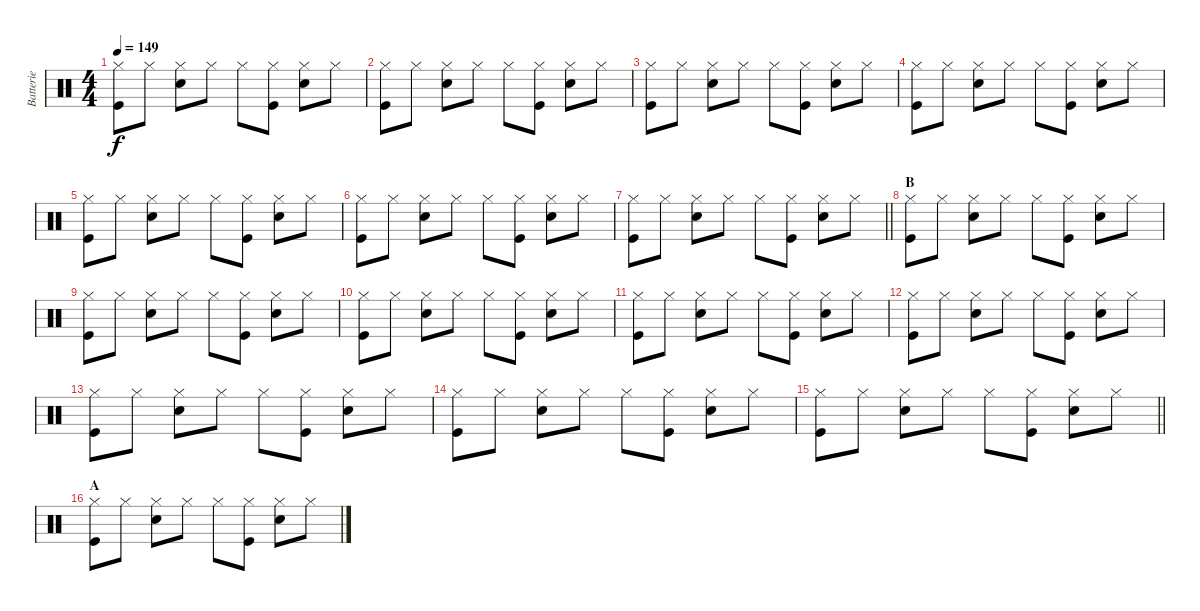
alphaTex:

\track ("Batterie" "Batterie") {instrument percussion}
\staff {score}
\articulation defaults
\ts (4 4)
\tempo 149
\clef neutral
\ks c
("Hi-Hat (closed)" "Kick (hit)").8{dy f} "Hi-Hat (closed)".8 ("Hi-Hat (closed)" "Snare (hit) 2").8 "Hi-Hat (closed)".8 "Hi-Hat (closed)".8 ("Hi-Hat (closed)" "Kick (hit)").8 ("Hi-Hat (closed)" "Snare (hit) 2").8 "Hi-Hat (closed)".8 |
("Hi-Hat (closed)" "Kick (hit)").8 "Hi-Hat (closed)".8 ("Hi-Hat (closed)" "Snare (hit) 2").8 "Hi-Hat (closed)".8 "Hi-Hat (closed)".8 ("Hi-Hat (closed)" "Kick (hit)").8 ("Hi-Hat (closed)" "Snare (hit) 2").8 "Hi-Hat (closed)".8 |
("Hi-Hat (closed)" "Kick (hit)").8 "Hi-Hat (closed)".8 ("Hi-Hat (closed)" "Snare (hit) 2").8 "Hi-Hat (closed)".8 "Hi-Hat (closed)".8 ("Hi-Hat (closed)" "Kick (hit)").8 ("Hi-Hat (closed)" "Snare (hit) 2").8 "Hi-Hat (closed)".8 |
("Hi-Hat (closed)" "Kick (hit)").8 "Hi-Hat (closed)".8 ("Hi-Hat (closed)" "Snare (hit) 2").8 "Hi-Hat (closed)".8 "Hi-Hat (closed)".8 ("Hi-Hat (closed)" "Kick (hit)").8 ("Hi-Hat (closed)" "Snare (hit) 2").8 "Hi-Hat (closed)".8 |
("Hi-Hat (closed)" "Kick (hit)").8 "Hi-Hat (closed)".8 ("Hi-Hat (closed)" "Snare (hit) 2").8 "Hi-Hat (closed)".8 "Hi-Hat (closed)".8 ("Hi-Hat (closed)" "Kick (hit)").8 ("Hi-Hat (closed)" "Snare (hit) 2").8 "Hi-Hat (closed)".8 |
("Hi-Hat (closed)" "Kick (hit)").8 "Hi-Hat (closed)".8 ("Hi-Hat (closed)" "Snare (hit) 2").8 "Hi-Hat (closed)".8 "Hi-Hat (closed)".8 ("Hi-Hat (closed)" "Kick (hit)").8 ("Hi-Hat (closed)" "Snare (hit) 2").8 "Hi-Hat (closed)".8 |
\barLineRight lightlight
("Hi-Hat (closed)" "Kick (hit)").8 "Hi-Hat (closed)".8 ("Hi-Hat (closed)" "Snare (hit) 2").8 "Hi-Hat (closed)".8 "Hi-Hat (closed)".8 ("Hi-Hat (closed)" "Kick (hit)").8 ("Hi-Hat (closed)" "Snare (hit) 2").8 "Hi-Hat (closed)".8 |
\section ("" "B")
("Hi-Hat (closed)" "Kick (hit)").8 "Hi-Hat (closed)".8 ("Hi-Hat (closed)" "Snare (hit) 2").8 "Hi-Hat (closed)".8 "Hi-Hat (closed)".8 ("Hi-Hat (closed)" "Kick (hit)").8 ("Hi-Hat (closed)" "Snare (hit) 2").8 "Hi-Hat (closed)".8 |
("Hi-Hat (closed)" "Kick (hit)").8 "Hi-Hat (closed)".8 ("Hi-Hat (closed)" "Snare (hit) 2").8 "Hi-Hat (closed)".8 "Hi-Hat (closed)".8 ("Hi-Hat (closed)" "Kick (hit)").8 ("Hi-Hat (closed)" "Snare (hit) 2").8 "Hi-Hat (closed)".8 |
("Hi-Hat (closed)" "Kick (hit)").8 "Hi-Hat (closed)".8 ("Hi-Hat (closed)" "Snare (hit) 2").8 "Hi-Hat (closed)".8 "Hi-Hat (closed)".8 ("Hi-Hat (closed)" "Kick (hit)").8 ("Hi-Hat (closed)" "Snare (hit) 2").8 "Hi-Hat (closed)".8 |
("Hi-Hat (closed)" "Kick (hit)").8 "Hi-Hat (closed)".8 ("Hi-Hat (closed)" "Snare (hit) 2").8 "Hi-Hat (closed)".8 "Hi-Hat (closed)".8 ("Hi-Hat (closed)" "Kick (hit)").8 ("Hi-Hat (closed)" "Snare (hit) 2").8 "Hi-Hat (closed)".8 |
("Hi-Hat (closed)" "Kick (hit)").8 "Hi-Hat (closed)".8 ("Hi-Hat (closed)" "Snare (hit) 2").8 "Hi-Hat (closed)".8 "Hi-Hat (closed)".8 ("Hi-Hat (closed)" "Kick (hit)").8 ("Hi-Hat (closed)" "Snare (hit) 2").8 "Hi-Hat (closed)".8 |
("Hi-Hat (closed)" "Kick (hit)").8 "Hi-Hat (closed)".8 ("Hi-Hat (closed)" "Snare (hit) 2").8 "Hi-Hat (closed)".8 "Hi-Hat (closed)".8 ("Hi-Hat (closed)" "Kick (hit)").8 ("Hi-Hat (closed)" "Snare (hit) 2").8 "Hi-Hat (closed)".8 |
("Hi-Hat (closed)" "Kick (hit)").8 "Hi-Hat (closed)".8 ("Hi-Hat (closed)" "Snare (hit) 2").8 "Hi-Hat (closed)".8 "Hi-Hat (closed)".8 ("Hi-Hat (closed)" "Kick (hit)").8 ("Hi-Hat (closed)" "Snare (hit) 2").8 "Hi-Hat (closed)".8 |
\barLineRight lightlight
("Hi-Hat (closed)" "Kick (hit)").8 "Hi-Hat (closed)".8 ("Hi-Hat (closed)" "Snare (hit) 2").8 "Hi-Hat (closed)".8 "Hi-Hat (closed)".8 ("Hi-Hat (closed)" "Kick (hit)").8 ("Hi-Hat (closed)" "Snare (hit) 2").8 "Hi-Hat (closed)".8 |
\section ("" "A")
("Hi-Hat (closed)" "Kick (hit)").8 "Hi-Hat (closed)".8 ("Hi-Hat (closed)" "Snare (hit) 2").8 "Hi-Hat (closed)".8 "Hi-Hat (closed)".8 ("Hi-Hat (closed)" "Kick (hit)").8 ("Hi-Hat (closed)" "Snare (hit) 2").8 "Hi-Hat (closed)".8
